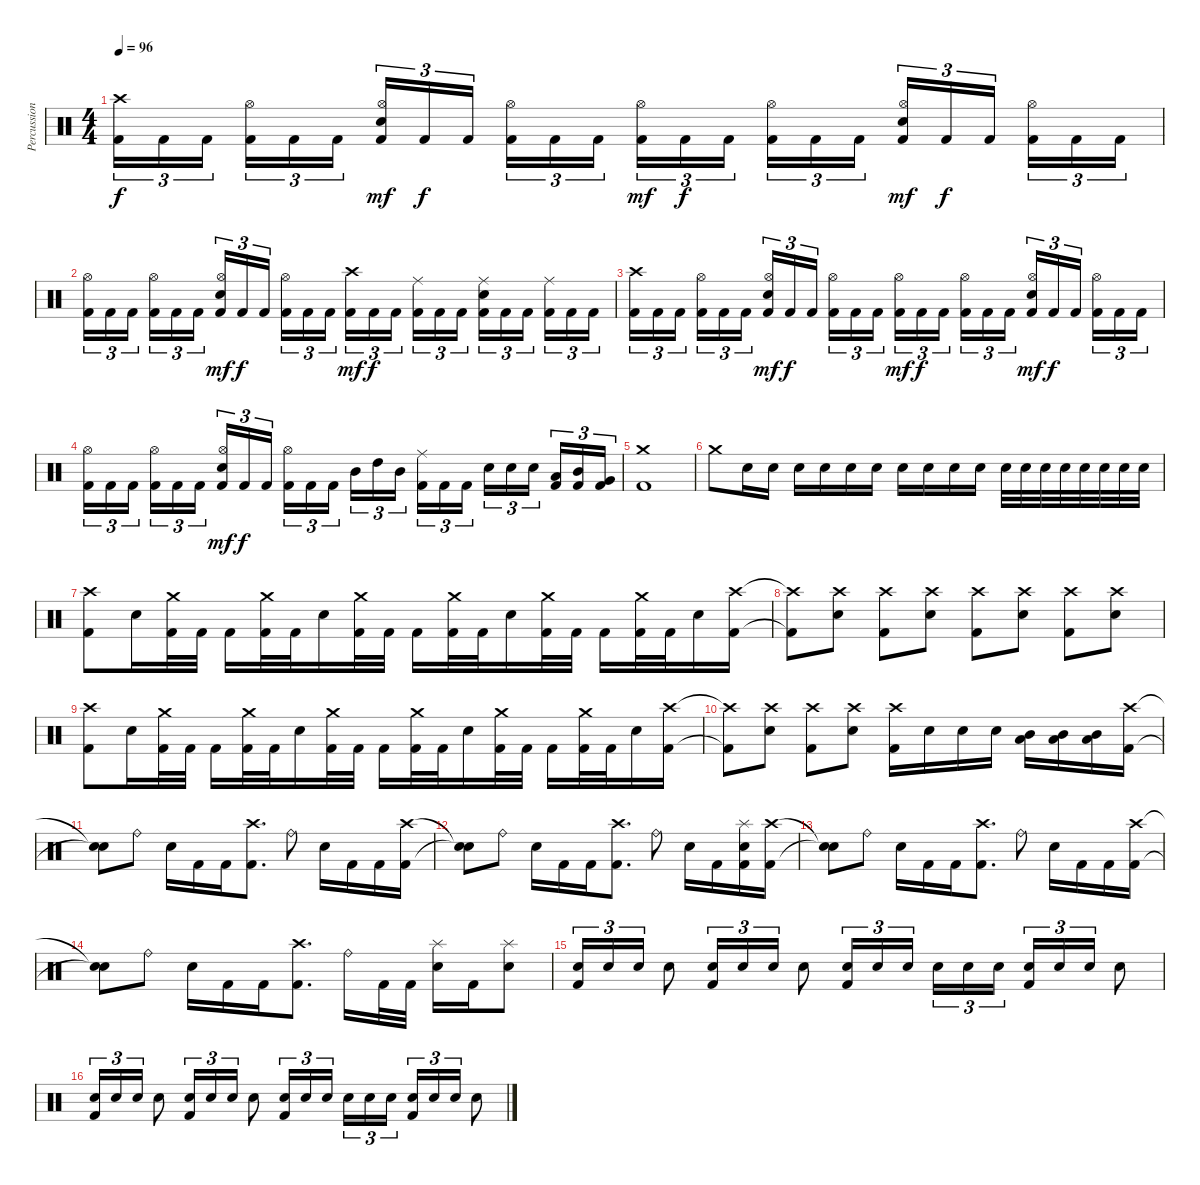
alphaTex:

\track ("Percussion" "Percussion") {instrument percussion}
\staff {score}
\articulation defaults
\ts (4 4)
\tempo 96
\clef neutral
\ks c
("Crash high (hit)" "Kick (hit) 2").16{tu (3 2) dy f} "Kick (hit) 2".16{tu (3 2)} "Kick (hit) 2".16{tu (3 2) beam splitsecondary} ("Hi-Hat (open)" "Kick (hit) 2").16{tu (3 2)} "Kick (hit) 2".16{tu (3 2)} "Kick (hit) 2".16{tu (3 2)} ("Hi-Hat (open)" "Snare (hit) 2" "Kick (hit) 2").16{tu (3 2) dy mf} "Kick (hit) 2".16{tu (3 2) dy f} "Kick (hit) 2".16{tu (3 2) beam splitsecondary} ("Hi-Hat (open)" "Kick (hit) 2").16{tu (3 2)} "Kick (hit) 2".16{tu (3 2)} "Kick (hit) 2".16{tu (3 2)} ("Hi-Hat (open)" "Kick (hit) 2").16{tu (3 2) dy mf} "Kick (hit) 2".16{tu (3 2) dy f} "Kick (hit) 2".16{tu (3 2) beam splitsecondary} ("Hi-Hat (open)" "Kick (hit) 2").16{tu (3 2)} "Kick (hit) 2".16{tu (3 2)} "Kick (hit) 2".16{tu (3 2)} ("Hi-Hat (open)" "Snare (hit) 2" "Kick (hit) 2").16{tu (3 2) dy mf} "Kick (hit) 2".16{tu (3 2) dy f} "Kick (hit) 2".16{tu (3 2) beam splitsecondary} ("Hi-Hat (open)" "Kick (hit) 2").16{tu (3 2)} "Kick (hit) 2".16{tu (3 2)} "Kick (hit) 2".16{tu (3 2)} |
("Hi-Hat (open)" "Kick (hit) 2").16{tu (3 2)} "Kick (hit) 2".16{tu (3 2)} "Kick (hit) 2".16{tu (3 2) beam splitsecondary} ("Hi-Hat (open)" "Kick (hit) 2").16{tu (3 2)} "Kick (hit) 2".16{tu (3 2)} "Kick (hit) 2".16{tu (3 2)} ("Hi-Hat (open)" "Snare (hit) 2" "Kick (hit) 2").16{tu (3 2) dy mf} "Kick (hit) 2".16{tu (3 2) dy f} "Kick (hit) 2".16{tu (3 2) beam splitsecondary} ("Hi-Hat (open)" "Kick (hit) 2").16{tu (3 2)} "Kick (hit) 2".16{tu (3 2)} "Kick (hit) 2".16{tu (3 2)} ("Crash high (hit)" "Kick (hit) 2").16{tu (3 2) dy mf} "Kick (hit) 2".16{tu (3 2) dy f} "Kick (hit) 2".16{tu (3 2) beam splitsecondary} ("Ride (middle)" "Kick (hit) 2").16{tu (3 2)} "Kick (hit) 2".16{tu (3 2)} "Kick (hit) 2".16{tu (3 2)} ("Ride (middle)" "Snare (hit) 2" "Kick (hit) 2").16{tu (3 2)} "Kick (hit) 2".16{tu (3 2)} "Kick (hit) 2".16{tu (3 2) beam splitsecondary} ("Ride (middle)" "Kick (hit) 2").16{tu (3 2)} "Kick (hit) 2".16{tu (3 2)} "Kick (hit) 2".16{tu (3 2)} |
("Crash high (hit)" "Kick (hit) 2").16{tu (3 2)} "Kick (hit) 2".16{tu (3 2)} "Kick (hit) 2".16{tu (3 2) beam splitsecondary} ("Hi-Hat (open)" "Kick (hit) 2").16{tu (3 2)} "Kick (hit) 2".16{tu (3 2)} "Kick (hit) 2".16{tu (3 2)} ("Hi-Hat (open)" "Snare (hit) 2" "Kick (hit) 2").16{tu (3 2) dy mf} "Kick (hit) 2".16{tu (3 2) dy f} "Kick (hit) 2".16{tu (3 2) beam splitsecondary} ("Hi-Hat (open)" "Kick (hit) 2").16{tu (3 2)} "Kick (hit) 2".16{tu (3 2)} "Kick (hit) 2".16{tu (3 2)} ("Hi-Hat (open)" "Kick (hit) 2").16{tu (3 2) dy mf} "Kick (hit) 2".16{tu (3 2) dy f} "Kick (hit) 2".16{tu (3 2) beam splitsecondary} ("Hi-Hat (open)" "Kick (hit) 2").16{tu (3 2)} "Kick (hit) 2".16{tu (3 2)} "Kick (hit) 2".16{tu (3 2)} ("Hi-Hat (open)" "Snare (hit) 2" "Kick (hit) 2").16{tu (3 2) dy mf} "Kick (hit) 2".16{tu (3 2) dy f} "Kick (hit) 2".16{tu (3 2) beam splitsecondary} ("Hi-Hat (open)" "Kick (hit) 2").16{tu (3 2)} "Kick (hit) 2".16{tu (3 2)} "Kick (hit) 2".16{tu (3 2)} |
("Hi-Hat (open)" "Kick (hit) 2").16{tu (3 2)} "Kick (hit) 2".16{tu (3 2)} "Kick (hit) 2".16{tu (3 2) beam splitsecondary} ("Hi-Hat (open)" "Kick (hit) 2").16{tu (3 2)} "Kick (hit) 2".16{tu (3 2)} "Kick (hit) 2".16{tu (3 2)} ("Hi-Hat (open)" "Snare (hit) 2" "Kick (hit) 2").16{tu (3 2) dy mf} "Kick (hit) 2".16{tu (3 2) dy f} "Kick (hit) 2".16{tu (3 2) beam splitsecondary} ("Hi-Hat (open)" "Kick (hit) 2").16{tu (3 2)} "Kick (hit) 2".16{tu (3 2)} "Kick (hit) 2".16{tu (3 2)} "Mid Tom (hit)".16{tu (3 2)} "High Tom (hit)".16{tu (3 2)} "Mid Tom (hit)".16{tu (3 2) beam splitsecondary} ("Ride (middle)" "Kick (hit) 2").16{tu (3 2)} "Kick (hit) 2".16{tu (3 2)} "Kick (hit) 2".16{tu (3 2)} "Snare (hit) 2".16{tu (3 2)} "Snare (hit) 2".16{tu (3 2)} "Snare (hit) 2".16{tu (3 2) beam splitsecondary} ("Low Tom (hit)" "Kick (hit) 2").16{tu (3 2)} ("Mid Tom (hit)" "Kick (hit) 2").16{tu (3 2)} ("Very Low Tom (hit)" "Kick (hit) 2").16{tu (3 2)} |
("Crash medium (hit)" "Kick (hit) 2").1 |
"Crash medium (hit)".8 "Snare (hit) 2".16 "Snare (hit) 2".16 "Snare (hit) 2".16 "Snare (hit) 2".16 "Snare (hit) 2".16 "Snare (hit) 2".16 "Snare (hit) 2".16 "Snare (hit) 2".16 "Snare (hit) 2".16 "Snare (hit) 2".16 "Snare (hit) 2".32 "Snare (hit) 2".32 "Snare (hit) 2".32 "Snare (hit) 2".32 "Snare (hit) 2".32 "Snare (hit) 2".32 "Snare (hit) 2".32 "Snare (hit) 2".32 |
("Crash high (hit)" "Kick (hit) 2").8 "Snare (hit) 2".16 ("Crash medium (hit)" "Kick (hit) 2").32 "Kick (hit) 2".32 "Kick (hit) 2".16 ("Crash medium (hit)" "Kick (hit) 2").32 "Kick (hit) 2".32 "Snare (hit) 2".16 ("Crash medium (hit)" "Kick (hit) 2").32 "Kick (hit) 2".32 "Kick (hit) 2".16 ("Crash medium (hit)" "Kick (hit) 2").32 "Kick (hit) 2".32 "Snare (hit) 2".16 ("Crash medium (hit)" "Kick (hit) 2").32 "Kick (hit) 2".32 "Kick (hit) 2".16 ("Crash medium (hit)" "Kick (hit) 2").32 "Kick (hit) 2".32 "Snare (hit) 2".16 ("Crash high (hit)" "Kick (hit) 2").16 |
("Crash high (hit)"{t} "Kick (hit) 2"{t}).8 ("Crash high (hit)" "Snare (hit) 2").8 ("Crash high (hit)" "Kick (hit) 2").8 ("Crash high (hit)" "Snare (hit) 2").8 ("Crash high (hit)" "Kick (hit) 2").8 ("Crash high (hit)" "Snare (hit) 2").8 ("Crash high (hit)" "Kick (hit) 2").8 ("Crash high (hit)" "Snare (hit) 2").8 |
("Crash high (hit)" "Kick (hit) 2").8 "Snare (hit) 2".16 ("Crash medium (hit)" "Kick (hit) 2").32 "Kick (hit) 2".32 "Kick (hit) 2".16 ("Crash medium (hit)" "Kick (hit) 2").32 "Kick (hit) 2".32 "Snare (hit) 2".16 ("Crash medium (hit)" "Kick (hit) 2").32 "Kick (hit) 2".32 "Kick (hit) 2".16 ("Crash medium (hit)" "Kick (hit) 2").32 "Kick (hit) 2".32 "Snare (hit) 2".16 ("Crash medium (hit)" "Kick (hit) 2").32 "Kick (hit) 2".32 "Kick (hit) 2".16 ("Crash medium (hit)" "Kick (hit) 2").32 "Kick (hit) 2".32 "Snare (hit) 2".16 ("Crash high (hit)" "Kick (hit) 2").16 |
("Crash high (hit)"{t} "Kick (hit) 2"{t}).8 ("Crash high (hit)" "Snare (hit) 2").8 ("Crash high (hit)" "Kick (hit) 2").8 ("Crash high (hit)" "Snare (hit) 2").8 ("Crash high (hit)" "Kick (hit) 2").16 "Snare (hit) 2".16 "Snare (hit) 2".16 "Snare (hit) 2".16 ("Mid Tom (hit)" "Low Tom (hit)").16 ("Mid Tom (hit)" "Low Tom (hit)").16 ("Mid Tom (hit)" "Low Tom (hit)").16 ("Crash high (hit)" "Kick (hit) 2").16 |
("Snare (hit)"{t} "Snare (hit)"{t}).8 "Ride (bell)".8 "Snare (hit) 2".16 "Kick (hit) 2".16 "Kick (hit) 2".16 ("Crash high (hit)" "Kick (hit) 2").8{d} "Ride (bell)".8 "Snare (hit) 2".16 "Kick (hit) 2".16 "Kick (hit) 2".16 ("Crash high (hit)" "Kick (hit) 2").16 |
("Snare (hit)"{t} "Snare (hit)"{t}).8 "Ride (bell)".8 "Snare (hit) 2".16 "Kick (hit) 2".16 "Kick (hit) 2".16 ("Crash high (hit)" "Kick (hit) 2").8{d} "Ride (bell)".8 "Snare (hit) 2".16 "Kick (hit) 2".16 ("Splash (hit)" "Snare (hit) 2" "Kick (hit) 2").16 ("Crash high (hit)" "Kick (hit) 2").16 |
("Snare (hit)"{t} "Snare (hit)"{t}).8 "Ride (bell)".8 "Snare (hit) 2".16 "Kick (hit) 2".16 "Kick (hit) 2".16 ("Crash high (hit)" "Kick (hit) 2").8{d} "Ride (bell)".8 "Snare (hit) 2".16 "Kick (hit) 2".16 "Kick (hit) 2".16 ("Crash high (hit)" "Kick (hit) 2").16 |
("Snare (hit)"{t} "Snare (hit)"{t}).8 "Ride (bell)".8 "Snare (hit) 2".16 "Kick (hit) 2".16 "Kick (hit) 2".16 ("Crash high (hit)" "Kick (hit) 2").8{d} "Ride (bell)".16 "Kick (hit) 2".32 "Kick (hit) 2".32 ("Splash (hit)" "Snare (hit) 2").16 "Kick (hit) 2".16 ("Splash (hit)" "Snare (hit) 2").8 |
("Snare (hit) 2" "Kick (hit) 2").16{tu (3 2)} "Snare (hit) 2".16{tu (3 2)} "Snare (hit) 2".16{tu (3 2)} "Snare (hit) 2".8 ("Snare (hit) 2" "Kick (hit) 2").16{tu (3 2)} "Snare (hit) 2".16{tu (3 2)} "Snare (hit) 2".16{tu (3 2)} "Snare (hit) 2".8 ("Snare (hit) 2" "Kick (hit) 2").16{tu (3 2)} "Snare (hit) 2".16{tu (3 2)} "Snare (hit) 2".16{tu (3 2) beam splitsecondary} "Snare (hit) 2".16{tu (3 2)} "Snare (hit) 2".16{tu (3 2)} "Snare (hit) 2".16{tu (3 2)} ("Snare (hit) 2" "Kick (hit) 2").16{tu (3 2)} "Snare (hit) 2".16{tu (3 2)} "Snare (hit) 2".16{tu (3 2)} "Snare (hit) 2".8 |
("Snare (hit) 2" "Kick (hit) 2").16{tu (3 2)} "Snare (hit) 2".16{tu (3 2)} "Snare (hit) 2".16{tu (3 2)} "Snare (hit) 2".8 ("Snare (hit) 2" "Kick (hit) 2").16{tu (3 2)} "Snare (hit) 2".16{tu (3 2)} "Snare (hit) 2".16{tu (3 2)} "Snare (hit) 2".8 ("Snare (hit) 2" "Kick (hit) 2").16{tu (3 2)} "Snare (hit) 2".16{tu (3 2)} "Snare (hit) 2".16{tu (3 2) beam splitsecondary} "Snare (hit) 2".16{tu (3 2)} "Snare (hit) 2".16{tu (3 2)} "Snare (hit) 2".16{tu (3 2)} ("Snare (hit) 2" "Kick (hit) 2").16{tu (3 2)} "Snare (hit) 2".16{tu (3 2)} "Snare (hit) 2".16{tu (3 2)} "Snare (hit) 2".8
